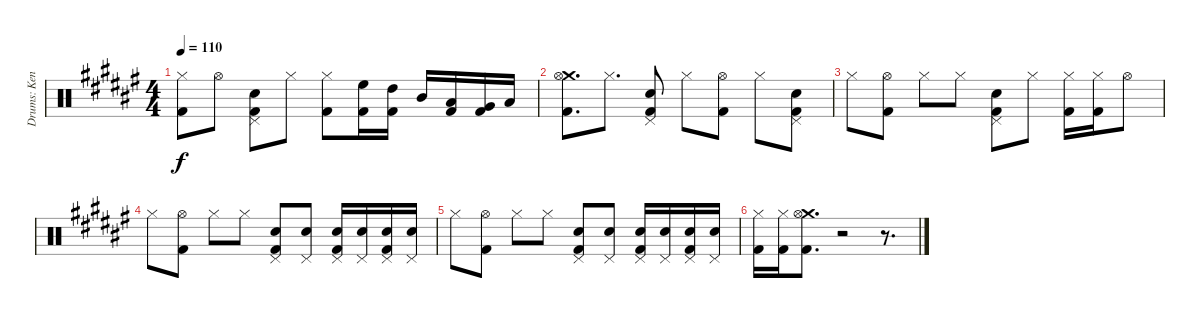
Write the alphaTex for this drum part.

\track ("Drums: Kenny Aronoff" "Drums: Ken") {instrument percussion}
\staff {score}
\articulation defaults
\ts (4 4)
\tempo 110
\clef neutral
\ks f#
("Hi-Hat (closed)" "Kick (hit) 2").8{dy f} "Hi-Hat (open)".8 ("Pedal Hi-Hat (hit)" "Snare (hit) 2" "Kick (hit) 2").8 "Hi-Hat (closed)".8 ("Hi-Hat (closed)" "Kick (hit) 2").8 ("High Floor Tom (hit)" "Kick (hit) 2").16 ("High Tom (hit)" "Kick (hit) 2").16 "Mid Tom (hit)".16 ("Low Tom (hit)" "Kick (hit) 2").16 ("Very Low Tom (hit)" "Kick (hit) 2").16 "Low Floor Tom (hit)".16 |
("Crash medium (hit)" "Hi-Hat (open)" "Kick (hit) 2").8{d} "Hi-Hat (closed)".8{d} ("Pedal Hi-Hat (hit)" "Snare (hit) 2" "Kick (hit) 2").8 "Hi-Hat (closed)".8 ("Hi-Hat (open)" "Kick (hit) 2").8 "Hi-Hat (closed)".8 ("Pedal Hi-Hat (hit)" "Snare (hit) 2" "Kick (hit) 2").8 |
"Hi-Hat (closed)".8 ("Hi-Hat (open)" "Kick (hit) 2").8 "Hi-Hat (closed)".8 "Hi-Hat (closed)".8 ("Pedal Hi-Hat (hit)" "Snare (hit) 2" "Kick (hit) 2").8 "Hi-Hat (closed)".8 ("Hi-Hat (closed)" "Kick (hit) 2").16 ("Hi-Hat (closed)" "Kick (hit) 2").16 "Hi-Hat (open)".8 |
"Hi-Hat (closed)".8 ("Hi-Hat (open)" "Kick (hit) 2").8 "Hi-Hat (closed)".8 "Hi-Hat (closed)".8 ("Pedal Hi-Hat (hit)" "Snare (hit) 2" "Kick (hit) 2").8 ("Pedal Hi-Hat (hit)" "Snare (hit) 2").8 ("Pedal Hi-Hat (hit)" "Snare (hit) 2" "Kick (hit) 2").16 ("Pedal Hi-Hat (hit)" "Snare (hit) 2").16 ("Pedal Hi-Hat (hit)" "Snare (hit) 2" "Kick (hit) 2").16 ("Pedal Hi-Hat (hit)" "Snare (hit) 2").16 |
"Hi-Hat (closed)".8 ("Hi-Hat (open)" "Kick (hit) 2").8 "Hi-Hat (closed)".8 "Hi-Hat (closed)".8 ("Pedal Hi-Hat (hit)" "Snare (hit) 2" "Kick (hit) 2").8 ("Pedal Hi-Hat (hit)" "Snare (hit) 2").8 ("Pedal Hi-Hat (hit)" "Snare (hit) 2" "Kick (hit) 2").16 ("Pedal Hi-Hat (hit)" "Snare (hit) 2").16 ("Pedal Hi-Hat (hit)" "Snare (hit) 2" "Kick (hit) 2").16 ("Pedal Hi-Hat (hit)" "Snare (hit) 2").16 |
("Hi-Hat (closed)" "Kick (hit) 2").16 ("Hi-Hat (closed)" "Kick (hit) 2").16 ("Crash medium (hit)" "Hi-Hat (open)" "Kick (hit) 2").8{d} r.2 r.8{d}
